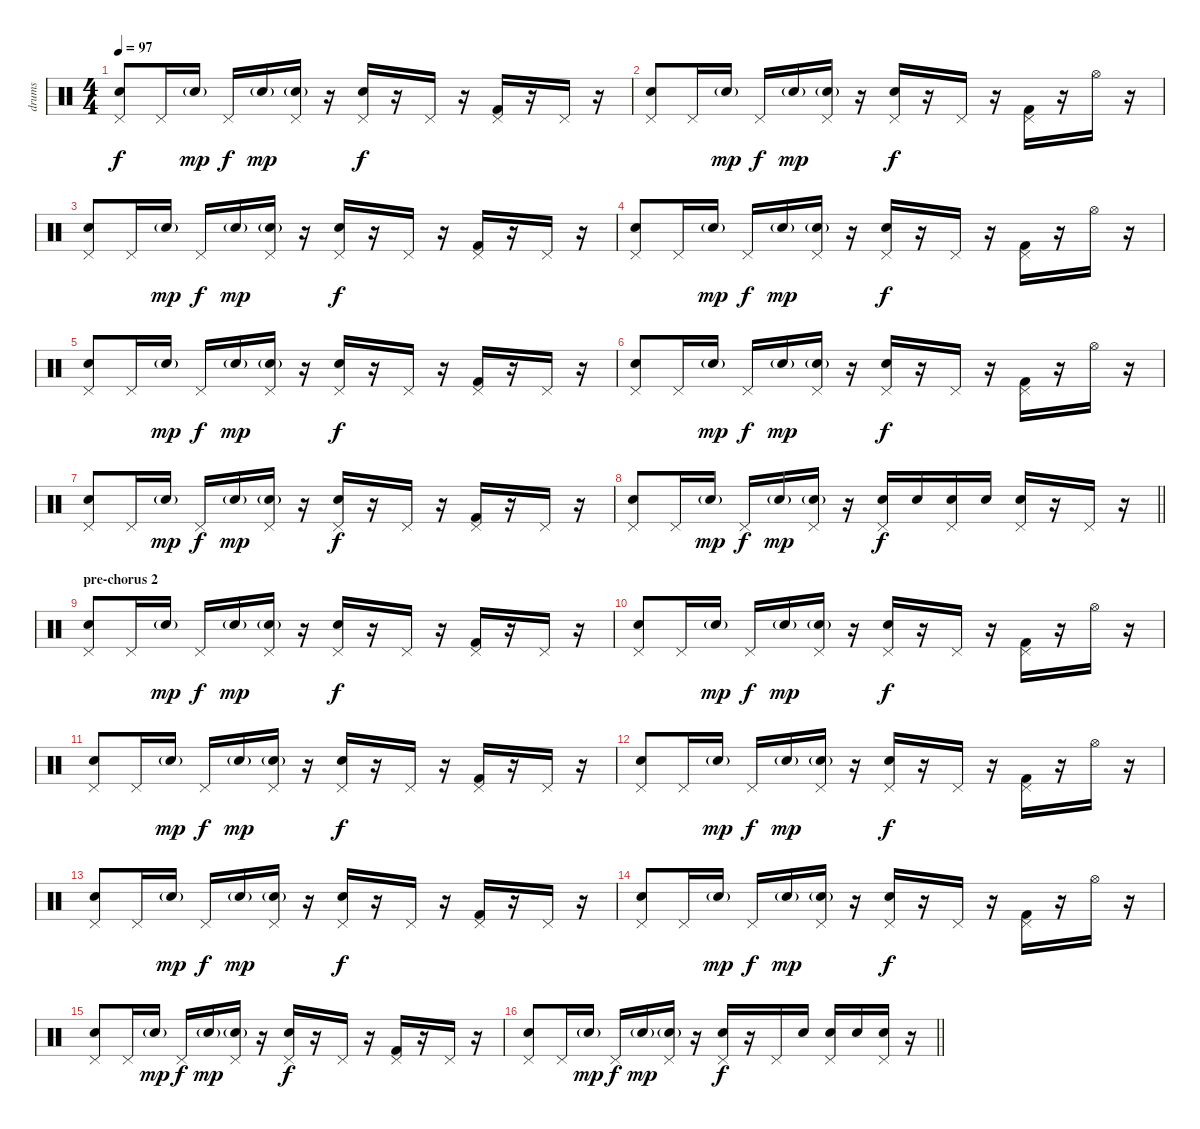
\track ("drums" "drums") {instrument percussion}
\staff {score}
\articulation defaults
\ts (4 4)
\tempo 97
\clef neutral
\ks c
("Electric Snare (hit)" "Pedal Hi-Hat (hit)").8{dy f} "Pedal Hi-Hat (hit)".16 "Electric Snare (hit)"{g}.16{dy mp} "Pedal Hi-Hat (hit)".16{dy f} "Electric Snare (hit)"{g}.16{dy mp} ("Electric Snare (hit)"{g} "Pedal Hi-Hat (hit)").16 r.16 ("Electric Snare (hit)" "Pedal Hi-Hat (hit)").16{dy f} r.16 "Pedal Hi-Hat (hit)".16 r.16 ("Kick (hit) 2" "Pedal Hi-Hat (hit)").16 r.16 "Pedal Hi-Hat (hit)".16 r.16 |
("Electric Snare (hit)" "Pedal Hi-Hat (hit)").8 "Pedal Hi-Hat (hit)".16 "Electric Snare (hit)"{g}.16{dy mp} "Pedal Hi-Hat (hit)".16{dy f} "Electric Snare (hit)"{g}.16{dy mp} ("Electric Snare (hit)"{g} "Pedal Hi-Hat (hit)").16 r.16 ("Electric Snare (hit)" "Pedal Hi-Hat (hit)").16{dy f} r.16 "Pedal Hi-Hat (hit)".16 r.16 ("Kick (hit) 2" "Pedal Hi-Hat (hit)").16 r.16 "Hi-Hat (open)".16 r.16 |
("Electric Snare (hit)" "Pedal Hi-Hat (hit)").8 "Pedal Hi-Hat (hit)".16 "Electric Snare (hit)"{g}.16{dy mp} "Pedal Hi-Hat (hit)".16{dy f} "Electric Snare (hit)"{g}.16{dy mp} ("Electric Snare (hit)"{g} "Pedal Hi-Hat (hit)").16 r.16 ("Electric Snare (hit)" "Pedal Hi-Hat (hit)").16{dy f} r.16 "Pedal Hi-Hat (hit)".16 r.16 ("Kick (hit) 2" "Pedal Hi-Hat (hit)").16 r.16 "Pedal Hi-Hat (hit)".16 r.16 |
("Electric Snare (hit)" "Pedal Hi-Hat (hit)").8 "Pedal Hi-Hat (hit)".16 "Electric Snare (hit)"{g}.16{dy mp} "Pedal Hi-Hat (hit)".16{dy f} "Electric Snare (hit)"{g}.16{dy mp} ("Electric Snare (hit)"{g} "Pedal Hi-Hat (hit)").16 r.16 ("Electric Snare (hit)" "Pedal Hi-Hat (hit)").16{dy f} r.16 "Pedal Hi-Hat (hit)".16 r.16 ("Kick (hit) 2" "Pedal Hi-Hat (hit)").16 r.16 "Hi-Hat (open)".16 r.16 |
("Electric Snare (hit)" "Pedal Hi-Hat (hit)").8 "Pedal Hi-Hat (hit)".16 "Electric Snare (hit)"{g}.16{dy mp} "Pedal Hi-Hat (hit)".16{dy f} "Electric Snare (hit)"{g}.16{dy mp} ("Electric Snare (hit)"{g} "Pedal Hi-Hat (hit)").16 r.16 ("Electric Snare (hit)" "Pedal Hi-Hat (hit)").16{dy f} r.16 "Pedal Hi-Hat (hit)".16 r.16 ("Kick (hit) 2" "Pedal Hi-Hat (hit)").16 r.16 "Pedal Hi-Hat (hit)".16 r.16 |
("Electric Snare (hit)" "Pedal Hi-Hat (hit)").8 "Pedal Hi-Hat (hit)".16 "Electric Snare (hit)"{g}.16{dy mp} "Pedal Hi-Hat (hit)".16{dy f} "Electric Snare (hit)"{g}.16{dy mp} ("Electric Snare (hit)"{g} "Pedal Hi-Hat (hit)").16 r.16 ("Electric Snare (hit)" "Pedal Hi-Hat (hit)").16{dy f} r.16 "Pedal Hi-Hat (hit)".16 r.16 ("Kick (hit) 2" "Pedal Hi-Hat (hit)").16 r.16 "Hi-Hat (open)".16 r.16 |
("Electric Snare (hit)" "Pedal Hi-Hat (hit)").8 "Pedal Hi-Hat (hit)".16 "Electric Snare (hit)"{g}.16{dy mp} "Pedal Hi-Hat (hit)".16{dy f} "Electric Snare (hit)"{g}.16{dy mp} ("Electric Snare (hit)"{g} "Pedal Hi-Hat (hit)").16 r.16 ("Electric Snare (hit)" "Pedal Hi-Hat (hit)").16{dy f} r.16 "Pedal Hi-Hat (hit)".16 r.16 ("Kick (hit) 2" "Pedal Hi-Hat (hit)").16 r.16 "Pedal Hi-Hat (hit)".16 r.16 |
\barLineRight lightlight
("Electric Snare (hit)" "Pedal Hi-Hat (hit)").8 "Pedal Hi-Hat (hit)".16 "Electric Snare (hit)"{g}.16{dy mp} "Pedal Hi-Hat (hit)".16{dy f} "Electric Snare (hit)"{g}.16{dy mp} ("Electric Snare (hit)"{g} "Pedal Hi-Hat (hit)").16 r.16 ("Electric Snare (hit)" "Pedal Hi-Hat (hit)").16{dy f} "Electric Snare (hit)".16 ("Electric Snare (hit)" "Pedal Hi-Hat (hit)").16 "Electric Snare (hit)".16 ("Electric Snare (hit)" "Pedal Hi-Hat (hit)").16 r.16 "Pedal Hi-Hat (hit)".16 r.16 |
\section ("" "pre-chorus 2 ")
("Electric Snare (hit)" "Pedal Hi-Hat (hit)").8 "Pedal Hi-Hat (hit)".16 "Electric Snare (hit)"{g}.16{dy mp} "Pedal Hi-Hat (hit)".16{dy f} "Electric Snare (hit)"{g}.16{dy mp} ("Electric Snare (hit)"{g} "Pedal Hi-Hat (hit)").16 r.16 ("Electric Snare (hit)" "Pedal Hi-Hat (hit)").16{dy f} r.16 "Pedal Hi-Hat (hit)".16 r.16 ("Kick (hit) 2" "Pedal Hi-Hat (hit)").16 r.16 "Pedal Hi-Hat (hit)".16 r.16 |
("Electric Snare (hit)" "Pedal Hi-Hat (hit)").8 "Pedal Hi-Hat (hit)".16 "Electric Snare (hit)"{g}.16{dy mp} "Pedal Hi-Hat (hit)".16{dy f} "Electric Snare (hit)"{g}.16{dy mp} ("Electric Snare (hit)"{g} "Pedal Hi-Hat (hit)").16 r.16 ("Electric Snare (hit)" "Pedal Hi-Hat (hit)").16{dy f} r.16 "Pedal Hi-Hat (hit)".16 r.16 ("Kick (hit) 2" "Pedal Hi-Hat (hit)").16 r.16 "Hi-Hat (open)".16 r.16 |
("Electric Snare (hit)" "Pedal Hi-Hat (hit)").8 "Pedal Hi-Hat (hit)".16 "Electric Snare (hit)"{g}.16{dy mp} "Pedal Hi-Hat (hit)".16{dy f} "Electric Snare (hit)"{g}.16{dy mp} ("Electric Snare (hit)"{g} "Pedal Hi-Hat (hit)").16 r.16 ("Electric Snare (hit)" "Pedal Hi-Hat (hit)").16{dy f} r.16 "Pedal Hi-Hat (hit)".16 r.16 ("Kick (hit) 2" "Pedal Hi-Hat (hit)").16 r.16 "Pedal Hi-Hat (hit)".16 r.16 |
("Electric Snare (hit)" "Pedal Hi-Hat (hit)").8 "Pedal Hi-Hat (hit)".16 "Electric Snare (hit)"{g}.16{dy mp} "Pedal Hi-Hat (hit)".16{dy f} "Electric Snare (hit)"{g}.16{dy mp} ("Electric Snare (hit)"{g} "Pedal Hi-Hat (hit)").16 r.16 ("Electric Snare (hit)" "Pedal Hi-Hat (hit)").16{dy f} r.16 "Pedal Hi-Hat (hit)".16 r.16 ("Kick (hit) 2" "Pedal Hi-Hat (hit)").16 r.16 "Hi-Hat (open)".16 r.16 |
("Electric Snare (hit)" "Pedal Hi-Hat (hit)").8 "Pedal Hi-Hat (hit)".16 "Electric Snare (hit)"{g}.16{dy mp} "Pedal Hi-Hat (hit)".16{dy f} "Electric Snare (hit)"{g}.16{dy mp} ("Electric Snare (hit)"{g} "Pedal Hi-Hat (hit)").16 r.16 ("Electric Snare (hit)" "Pedal Hi-Hat (hit)").16{dy f} r.16 "Pedal Hi-Hat (hit)".16 r.16 ("Kick (hit) 2" "Pedal Hi-Hat (hit)").16 r.16 "Pedal Hi-Hat (hit)".16 r.16 |
("Electric Snare (hit)" "Pedal Hi-Hat (hit)").8 "Pedal Hi-Hat (hit)".16 "Electric Snare (hit)"{g}.16{dy mp} "Pedal Hi-Hat (hit)".16{dy f} "Electric Snare (hit)"{g}.16{dy mp} ("Electric Snare (hit)"{g} "Pedal Hi-Hat (hit)").16 r.16 ("Electric Snare (hit)" "Pedal Hi-Hat (hit)").16{dy f} r.16 "Pedal Hi-Hat (hit)".16 r.16 ("Kick (hit) 2" "Pedal Hi-Hat (hit)").16 r.16 "Hi-Hat (open)".16 r.16 |
("Electric Snare (hit)" "Pedal Hi-Hat (hit)").8 "Pedal Hi-Hat (hit)".16 "Electric Snare (hit)"{g}.16{dy mp} "Pedal Hi-Hat (hit)".16{dy f} "Electric Snare (hit)"{g}.16{dy mp} ("Electric Snare (hit)"{g} "Pedal Hi-Hat (hit)").16 r.16 ("Electric Snare (hit)" "Pedal Hi-Hat (hit)").16{dy f} r.16 "Pedal Hi-Hat (hit)".16 r.16 ("Kick (hit) 2" "Pedal Hi-Hat (hit)").16 r.16 "Pedal Hi-Hat (hit)".16 r.16 |
\barLineRight lightlight
("Electric Snare (hit)" "Pedal Hi-Hat (hit)").8 "Pedal Hi-Hat (hit)".16 "Electric Snare (hit)"{g}.16{dy mp} "Pedal Hi-Hat (hit)".16{dy f} "Electric Snare (hit)"{g}.16{dy mp} ("Electric Snare (hit)"{g} "Pedal Hi-Hat (hit)").16 r.16 ("Electric Snare (hit)" "Pedal Hi-Hat (hit)").16{dy f} r.16 "Pedal Hi-Hat (hit)".16 "Electric Snare (hit)".16 ("Electric Snare (hit)" "Pedal Hi-Hat (hit)").16 "Electric Snare (hit)".16 ("Electric Snare (hit)" "Pedal Hi-Hat (hit)").16 r.16
